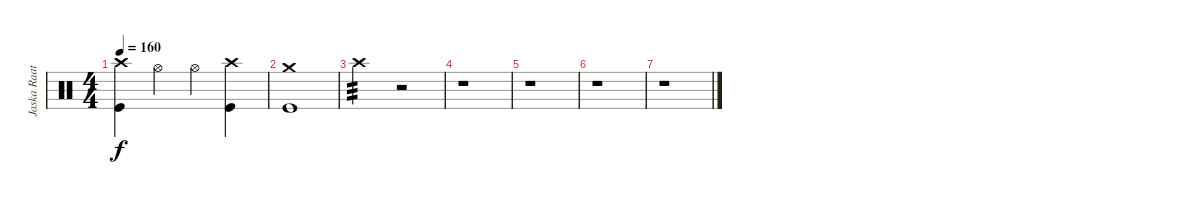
\track ("Jaska Raatikainen" "Jaska Raat") {instrument percussion}
\staff {score}
\articulation defaults
\ts (4 4)
\tempo 160
\clef neutral
\ks c
("Crash high (hit)" "Kick (hit)").4{dy f} "Hi-Hat (open)".4 "Hi-Hat (open)".4 ("Crash high (hit)" "Kick (hit)").4 |
("Crash medium (hit)" "Kick (hit)").1 |
"Crash high (hit)".2{tp 3} r.2 |
r.1 |
r.1 |
r.1 |
r.1
